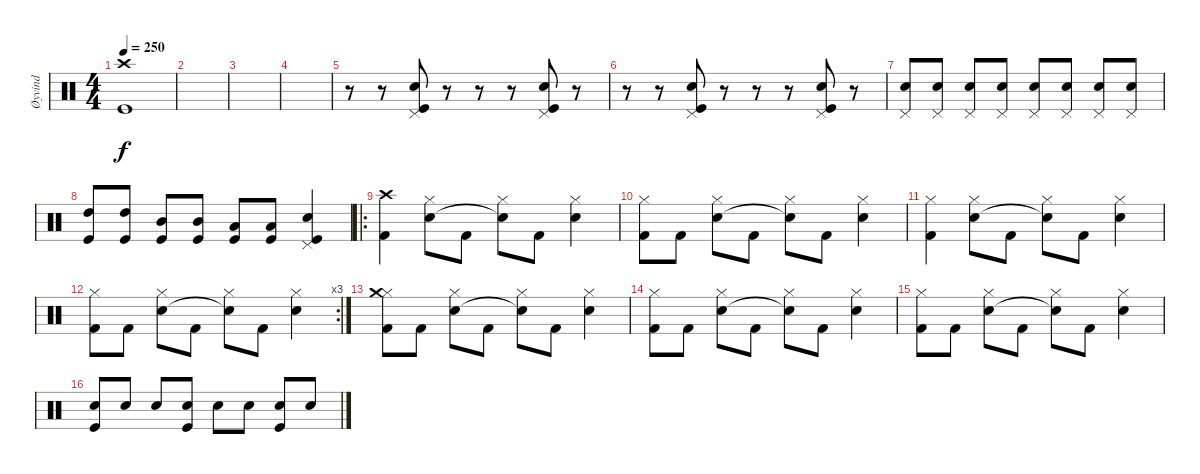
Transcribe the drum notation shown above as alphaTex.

\track ("Øyvind" "Øyvind") {instrument percussion}
\staff {score}
\articulation defaults
\ts (4 4)
\tempo 250
\clef neutral
\ks c
("Crash high (hit)" "Kick (hit)").1{dy f} |
|
|
|
r.8 r.8 ("Pedal Hi-Hat (hit)" "Snare (hit) 2" "Kick (hit)").8 r.8 r.8 r.8 ("Pedal Hi-Hat (hit)" "Snare (hit) 2" "Kick (hit)").8 r.8 |
r.8 r.8 ("Pedal Hi-Hat (hit)" "Snare (hit) 2" "Kick (hit)").8 r.8 r.8 r.8 ("Pedal Hi-Hat (hit)" "Snare (hit) 2" "Kick (hit)").8 r.8 |
("Pedal Hi-Hat (hit)" "Snare (hit) 2").8 ("Pedal Hi-Hat (hit)" "Snare (hit) 2").8 ("Pedal Hi-Hat (hit)" "Snare (hit) 2").8 ("Pedal Hi-Hat (hit)" "Snare (hit) 2").8 ("Pedal Hi-Hat (hit)" "Snare (hit) 2").8 ("Pedal Hi-Hat (hit)" "Snare (hit) 2").8 ("Pedal Hi-Hat (hit)" "Snare (hit) 2").8 ("Pedal Hi-Hat (hit)" "Snare (hit) 2").8 |
("High Tom (hit)" "Kick (hit)").8 ("High Tom (hit)" "Kick (hit)").8 ("Mid Tom (hit)" "Kick (hit)").8 ("Mid Tom (hit)" "Kick (hit)").8 ("Low Tom (hit)" "Kick (hit)").8 ("Low Tom (hit)" "Kick (hit)").8 ("Pedal Hi-Hat (hit)" "Snare (hit) 2" "Kick (hit)").4 |
\ro
("Crash high (hit)" "Kick (hit) 2").4 ("Hi-Hat (closed)" "Electric Snare (hit)").8 "Kick (hit) 2".8 ("Hi-Hat (closed)" "Snare (hit)"{t}).8 "Kick (hit) 2".8 ("Hi-Hat (closed)" "Electric Snare (hit)").4 |
("Hi-Hat (closed)" "Kick (hit) 2").8 "Kick (hit) 2".8 ("Hi-Hat (closed)" "Electric Snare (hit)").8 "Kick (hit) 2".8 ("Hi-Hat (closed)" "Snare (hit)"{t}).8 "Kick (hit) 2".8 ("Hi-Hat (closed)" "Electric Snare (hit)").4 |
("Hi-Hat (closed)" "Kick (hit) 2").4 ("Hi-Hat (closed)" "Electric Snare (hit)").8 "Kick (hit) 2".8 ("Hi-Hat (closed)" "Snare (hit)"{t}).8 "Kick (hit) 2".8 ("Hi-Hat (closed)" "Electric Snare (hit)").4 |
\rc 3
("Hi-Hat (closed)" "Kick (hit) 2").8 "Kick (hit) 2".8 ("Hi-Hat (closed)" "Electric Snare (hit)").8 "Kick (hit) 2".8 ("Hi-Hat (closed)" "Snare (hit)"{t}).8 "Kick (hit) 2".8 ("Hi-Hat (closed)" "Electric Snare (hit)").4 |
("Hi-Hat (closed)" "Crash medium (hit)" "Kick (hit) 2").8 "Kick (hit) 2".8 ("Hi-Hat (closed)" "Electric Snare (hit)").8 "Kick (hit) 2".8 ("Hi-Hat (closed)" "Snare (hit)"{t}).8 "Kick (hit) 2".8 ("Hi-Hat (closed)" "Electric Snare (hit)").4 |
("Hi-Hat (closed)" "Kick (hit) 2").8 "Kick (hit) 2".8 ("Hi-Hat (closed)" "Electric Snare (hit)").8 "Kick (hit) 2".8 ("Hi-Hat (closed)" "Snare (hit)"{t}).8 "Kick (hit) 2".8 ("Hi-Hat (closed)" "Electric Snare (hit)").4 |
("Hi-Hat (closed)" "Kick (hit) 2").8 "Kick (hit) 2".8 ("Hi-Hat (closed)" "Electric Snare (hit)").8 "Kick (hit) 2".8 ("Hi-Hat (closed)" "Snare (hit)"{t}).8 "Kick (hit) 2".8 ("Hi-Hat (closed)" "Electric Snare (hit)").4 |
("Kick (hit)" "Snare (hit) 2").8 "Snare (hit) 2".8 "Snare (hit) 2".8 ("Kick (hit)" "Snare (hit) 2").8 "Snare (hit) 2".8 "Snare (hit) 2".8 ("Kick (hit)" "Snare (hit) 2").8 "Snare (hit) 2".8
